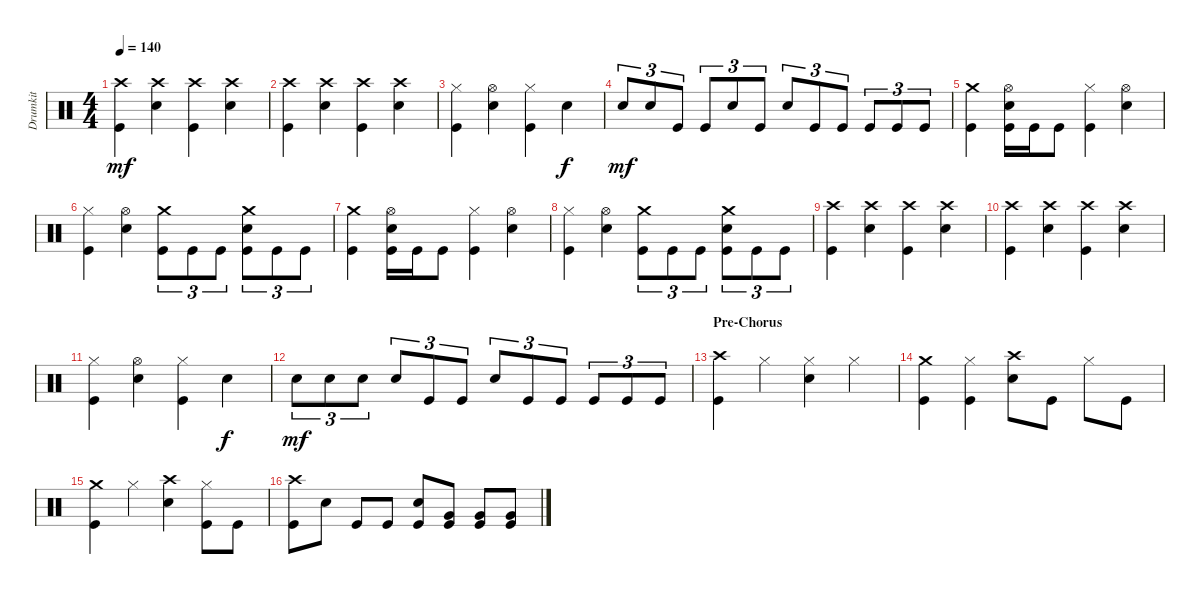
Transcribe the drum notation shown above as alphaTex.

\track ("Drumkit" "Drumkit") {instrument percussion}
\staff {score}
\articulation defaults
\ts (4 4)
\tempo 140
\clef neutral
\ks c
("Kick (hit)" "Crash high (hit)").4{dy mf} ("Snare (hit) 2" "Crash high (hit)").4 ("Kick (hit)" "Crash high (hit)").4 ("Snare (hit) 2" "Crash high (hit)").4 |
("Kick (hit)" "Crash high (hit)").4 ("Snare (hit) 2" "Crash high (hit)").4 ("Kick (hit)" "Crash high (hit)").4 ("Snare (hit) 2" "Crash high (hit)").4 |
("Kick (hit)" "Hi-Hat (closed)").4 ("Snare (hit) 2" "Hi-Hat (open)").4 ("Kick (hit)" "Hi-Hat (closed)").4 "Snare (hit) 2".4{dy f} |
"Snare (hit) 2".8{tu (3 2) dy mf} "Snare (hit) 2".8{tu (3 2)} "Kick (hit)".8{tu (3 2)} "Kick (hit)".8{tu (3 2)} "Snare (hit) 2".8{tu (3 2)} "Kick (hit)".8{tu (3 2)} "Snare (hit) 2".8{tu (3 2)} "Kick (hit)".8{tu (3 2)} "Kick (hit)".8{tu (3 2)} "Kick (hit)".8{tu (3 2)} "Kick (hit)".8{tu (3 2)} "Kick (hit)".8{tu (3 2)} |
("Kick (hit)" "Crash medium (hit)").4 ("Snare (hit) 2" "Kick (hit)" "Hi-Hat (open)").16 "Kick (hit)".16 "Kick (hit)".8 ("Kick (hit)" "Hi-Hat (closed)").4 ("Snare (hit) 2" "Hi-Hat (open)").4 |
("Kick (hit)" "Hi-Hat (closed)").4 ("Snare (hit) 2" "Hi-Hat (open)").4 ("Kick (hit)" "Crash medium (hit)").8{tu (3 2)} "Kick (hit)".8{tu (3 2)} "Kick (hit)".8{tu (3 2)} ("Kick (hit)" "Snare (hit) 2" "Crash medium (hit)").8{tu (3 2)} "Kick (hit)".8{tu (3 2)} "Kick (hit)".8{tu (3 2)} |
("Kick (hit)" "Crash medium (hit)").4 ("Snare (hit) 2" "Kick (hit)" "Hi-Hat (open)").16 "Kick (hit)".16 "Kick (hit)".8 ("Kick (hit)" "Hi-Hat (closed)").4 ("Snare (hit) 2" "Hi-Hat (open)").4 |
("Kick (hit)" "Hi-Hat (closed)").4 ("Snare (hit) 2" "Hi-Hat (open)").4 ("Kick (hit)" "Crash medium (hit)").8{tu (3 2)} "Kick (hit)".8{tu (3 2)} "Kick (hit)".8{tu (3 2)} ("Kick (hit)" "Snare (hit) 2" "Crash medium (hit)").8{tu (3 2)} "Kick (hit)".8{tu (3 2)} "Kick (hit)".8{tu (3 2)} |
("Kick (hit)" "Crash high (hit)").4 ("Snare (hit) 2" "Crash high (hit)").4 ("Kick (hit)" "Crash high (hit)").4 ("Snare (hit) 2" "Crash high (hit)").4 |
("Kick (hit)" "Crash high (hit)").4 ("Snare (hit) 2" "Crash high (hit)").4 ("Kick (hit)" "Crash high (hit)").4 ("Snare (hit) 2" "Crash high (hit)").4 |
("Kick (hit)" "Hi-Hat (closed)").4 ("Snare (hit) 2" "Hi-Hat (open)").4 ("Kick (hit)" "Hi-Hat (closed)").4 "Snare (hit) 2".4{dy f} |
"Snare (hit) 2".8{tu (3 2) dy mf} "Snare (hit) 2".8{tu (3 2)} "Snare (hit) 2".8{tu (3 2)} "Snare (hit) 2".8{tu (3 2)} "Kick (hit)".8{tu (3 2)} "Kick (hit)".8{tu (3 2)} "Snare (hit) 2".8{tu (3 2)} "Kick (hit)".8{tu (3 2)} "Kick (hit)".8{tu (3 2)} "Kick (hit)".8{tu (3 2)} "Kick (hit)".8{tu (3 2)} "Kick (hit)".8{tu (3 2)} |
\section ("" "Pre-Chorus")
("Kick (hit)" "Crash high (hit)").4 "Hi-Hat (closed)".4 ("Snare (hit) 2" "Hi-Hat (closed)").4 "Hi-Hat (closed)".4 |
("Kick (hit)" "Crash medium (hit)").4 ("Kick (hit)" "Hi-Hat (closed)").4 ("Snare (hit) 2" "Crash high (hit)").8 "Kick (hit)".8 "Hi-Hat (closed)".8 "Kick (hit)".8 |
("Kick (hit)" "Crash medium (hit)").4 "Hi-Hat (closed)".4 ("Snare (hit) 2" "Crash high (hit)").4 ("Hi-Hat (closed)" "Kick (hit)").8 "Kick (hit)".8 |
("Kick (hit)" "Crash high (hit)").8 "Snare (hit) 2".8 "Kick (hit)".8 "Kick (hit)".8 ("Kick (hit)" "Snare (hit) 2").8 ("Kick (hit)" "Very Low Tom (hit)").8 ("Kick (hit)" "Very Low Tom (hit)").8 ("Kick (hit)" "Very Low Tom (hit)").8
